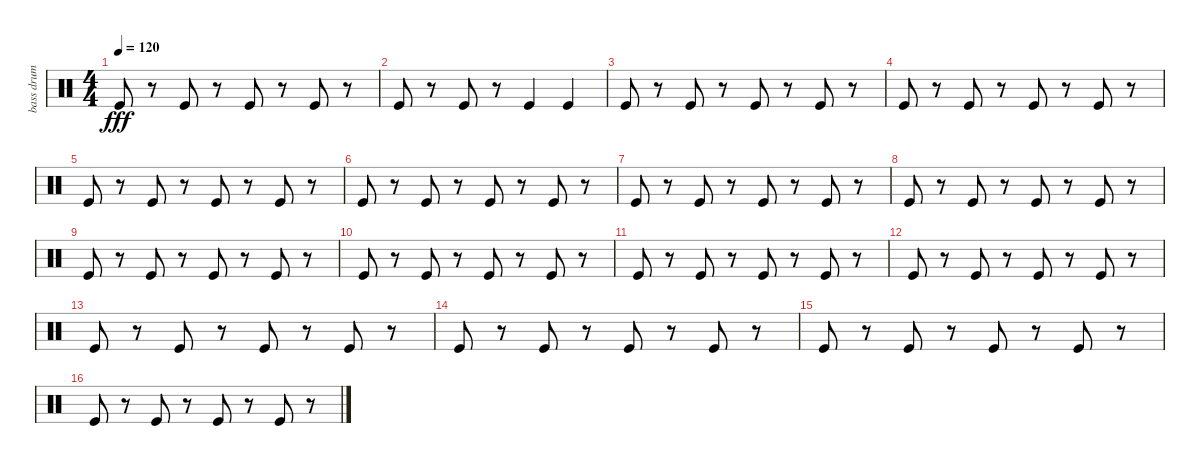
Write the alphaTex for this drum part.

\track ("bass drum" "bass drum") {instrument percussion}
\staff {score}
\articulation defaults
\ts (4 4)
\tempo 120
\clef neutral
\ks c "Kick (hit)".8{dy fff}
r.8 "Kick (hit)".8 r.8 "Kick (hit)".8 r.8 "Kick (hit)".8 r.8 |
"Kick (hit)".8 r.8 "Kick (hit)".8 r.8 "Kick (hit)".4 "Kick (hit)".4 |
"Kick (hit)".8 r.8 "Kick (hit)".8 r.8 "Kick (hit)".8 r.8 "Kick (hit)".8 r.8 |
"Kick (hit)".8 r.8 "Kick (hit)".8 r.8 "Kick (hit)".8 r.8 "Kick (hit)".8 r.8 |
"Kick (hit)".8 r.8 "Kick (hit)".8 r.8 "Kick (hit)".8 r.8 "Kick (hit)".8 r.8 |
"Kick (hit)".8 r.8 "Kick (hit)".8 r.8 "Kick (hit)".8 r.8 "Kick (hit)".8 r.8 |
"Kick (hit)".8 r.8 "Kick (hit)".8 r.8 "Kick (hit)".8 r.8 "Kick (hit)".8 r.8 |
"Kick (hit)".8 r.8 "Kick (hit)".8 r.8 "Kick (hit)".8 r.8 "Kick (hit)".8 r.8 |
"Kick (hit)".8 r.8 "Kick (hit)".8 r.8 "Kick (hit)".8 r.8 "Kick (hit)".8 r.8 |
"Kick (hit)".8 r.8 "Kick (hit)".8 r.8 "Kick (hit)".8 r.8 "Kick (hit)".8 r.8 |
"Kick (hit)".8 r.8 "Kick (hit)".8 r.8 "Kick (hit)".8 r.8 "Kick (hit)".8 r.8 |
"Kick (hit)".8 r.8 "Kick (hit)".8 r.8 "Kick (hit)".8 r.8 "Kick (hit)".8 r.8 |
"Kick (hit)".8 r.8 "Kick (hit)".8 r.8 "Kick (hit)".8 r.8 "Kick (hit)".8 r.8 |
"Kick (hit)".8 r.8 "Kick (hit)".8 r.8 "Kick (hit)".8 r.8 "Kick (hit)".8 r.8 |
"Kick (hit)".8 r.8 "Kick (hit)".8 r.8 "Kick (hit)".8 r.8 "Kick (hit)".8 r.8 |
"Kick (hit)".8 r.8 "Kick (hit)".8 r.8 "Kick (hit)".8 r.8 "Kick (hit)".8 r.8
